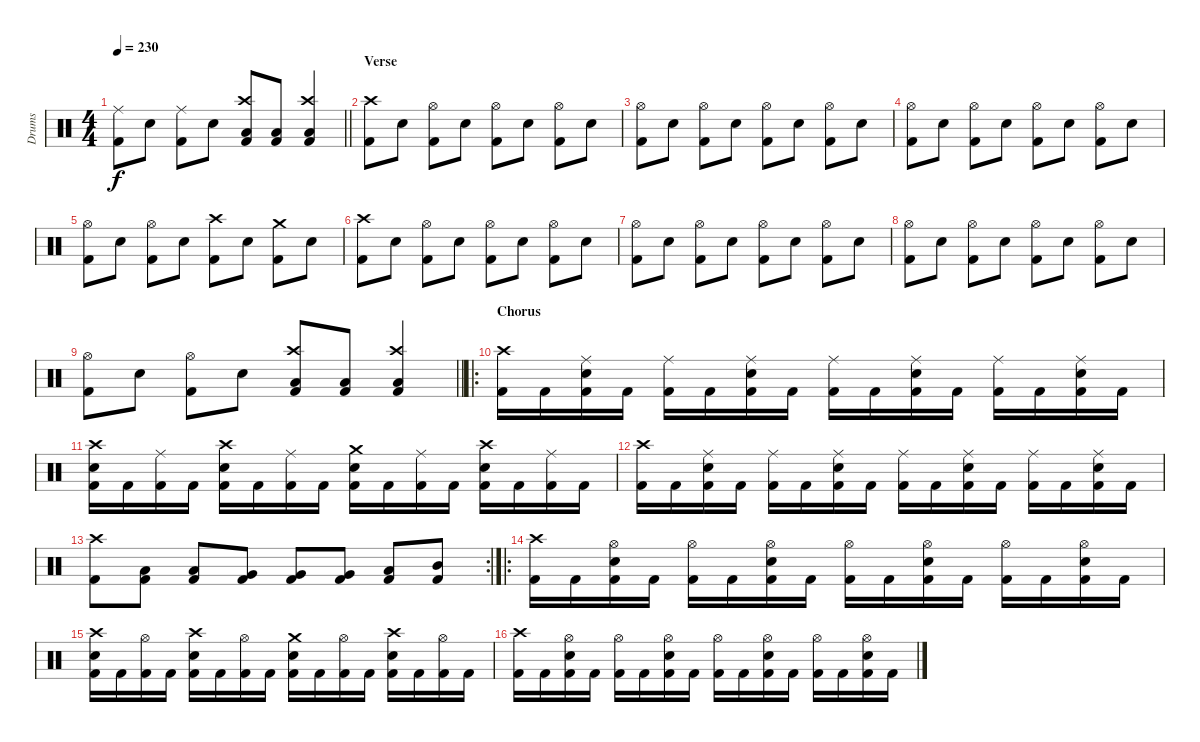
\track ("Drums" "Drums") {instrument percussion}
\staff {score}
\articulation defaults
\ts (4 4)
\tempo 230
\clef neutral
\barLineRight lightlight
\ks c
("Ride (middle)" "Kick (hit) 2").8{dy f} "Electric Snare (hit)".8 ("Ride (middle)" "Kick (hit) 2").8 "Electric Snare (hit)".8 ("Crash high (hit)" "Low Tom (hit)" "Kick (hit) 2").8 ("Low Tom (hit)" "Kick (hit) 2").8 ("Crash high (hit)" "Low Tom (hit)" "Kick (hit) 2").4 |
\section ("" "Verse")
("Crash high (hit)" "Kick (hit) 2").8 "Electric Snare (hit)".8 ("Hi-Hat (open)" "Kick (hit) 2").8 "Electric Snare (hit)".8 ("Hi-Hat (open)" "Kick (hit) 2").8 "Electric Snare (hit)".8 ("Hi-Hat (open)" "Kick (hit) 2").8 "Electric Snare (hit)".8 |
("Hi-Hat (open)" "Kick (hit) 2").8 "Electric Snare (hit)".8 ("Hi-Hat (open)" "Kick (hit) 2").8 "Electric Snare (hit)".8 ("Hi-Hat (open)" "Kick (hit) 2").8 "Electric Snare (hit)".8 ("Hi-Hat (open)" "Kick (hit) 2").8 "Electric Snare (hit)".8 |
("Hi-Hat (open)" "Kick (hit) 2").8 "Electric Snare (hit)".8 ("Hi-Hat (open)" "Kick (hit) 2").8 "Electric Snare (hit)".8 ("Hi-Hat (open)" "Kick (hit) 2").8 "Electric Snare (hit)".8 ("Hi-Hat (open)" "Kick (hit) 2").8 "Electric Snare (hit)".8 |
("Hi-Hat (open)" "Kick (hit) 2").8 "Electric Snare (hit)".8 ("Hi-Hat (open)" "Kick (hit) 2").8 "Electric Snare (hit)".8 ("Crash high (hit)" "Kick (hit) 2").8 "Electric Snare (hit)".8 ("Crash medium (hit)" "Kick (hit) 2").8 "Electric Snare (hit)".8 |
("Crash high (hit)" "Kick (hit) 2").8 "Electric Snare (hit)".8 ("Hi-Hat (open)" "Kick (hit) 2").8 "Electric Snare (hit)".8 ("Hi-Hat (open)" "Kick (hit) 2").8 "Electric Snare (hit)".8 ("Hi-Hat (open)" "Kick (hit) 2").8 "Electric Snare (hit)".8 |
("Hi-Hat (open)" "Kick (hit) 2").8 "Electric Snare (hit)".8 ("Hi-Hat (open)" "Kick (hit) 2").8 "Electric Snare (hit)".8 ("Hi-Hat (open)" "Kick (hit) 2").8 "Electric Snare (hit)".8 ("Hi-Hat (open)" "Kick (hit) 2").8 "Electric Snare (hit)".8 |
("Hi-Hat (open)" "Kick (hit) 2").8 "Electric Snare (hit)".8 ("Hi-Hat (open)" "Kick (hit) 2").8 "Electric Snare (hit)".8 ("Hi-Hat (open)" "Kick (hit) 2").8 "Electric Snare (hit)".8 ("Hi-Hat (open)" "Kick (hit) 2").8 "Electric Snare (hit)".8 |
\barLineRight lightlight
("Hi-Hat (open)" "Kick (hit) 2").8 "Electric Snare (hit)".8 ("Hi-Hat (open)" "Kick (hit) 2").8 "Electric Snare (hit)".8 ("Crash high (hit)" "Low Tom (hit)" "Kick (hit) 2").8 ("Low Tom (hit)" "Kick (hit) 2").8 ("Crash high (hit)" "Low Tom (hit)" "Kick (hit) 2").4 |
\ro
\section ("" "Chorus")
("Crash high (hit)" "Kick (hit) 2").16 "Kick (hit) 2".16 ("Ride (middle)" "Electric Snare (hit)" "Kick (hit) 2").16 "Kick (hit) 2".16 ("Ride (middle)" "Kick (hit) 2").16 "Kick (hit) 2".16 ("Ride (middle)" "Electric Snare (hit)" "Kick (hit) 2").16 "Kick (hit) 2".16 ("Ride (middle)" "Kick (hit) 2").16 "Kick (hit) 2".16 ("Ride (middle)" "Electric Snare (hit)" "Kick (hit) 2").16 "Kick (hit) 2".16 ("Ride (middle)" "Kick (hit) 2").16 "Kick (hit) 2".16 ("Ride (middle)" "Electric Snare (hit)" "Kick (hit) 2").16 "Kick (hit) 2".16 |
("Crash high (hit)" "Electric Snare (hit)" "Kick (hit) 2").16 "Kick (hit) 2".16 ("Ride (middle)" "Kick (hit) 2").16 "Kick (hit) 2".16 ("Crash high (hit)" "Electric Snare (hit)" "Kick (hit) 2").16 "Kick (hit) 2".16 ("Ride (middle)" "Kick (hit) 2").16 "Kick (hit) 2".16 ("Crash medium (hit)" "Electric Snare (hit)" "Kick (hit) 2").16 "Kick (hit) 2".16 ("Ride (middle)" "Kick (hit) 2").16 "Kick (hit) 2".16 ("Crash high (hit)" "Electric Snare (hit)" "Kick (hit) 2").16 "Kick (hit) 2".16 ("Ride (middle)" "Kick (hit) 2").16 "Kick (hit) 2".16 |
("Crash high (hit)" "Kick (hit) 2").16 "Kick (hit) 2".16 ("Ride (middle)" "Electric Snare (hit)" "Kick (hit) 2").16 "Kick (hit) 2".16 ("Ride (middle)" "Kick (hit) 2").16 "Kick (hit) 2".16 ("Ride (middle)" "Electric Snare (hit)" "Kick (hit) 2").16 "Kick (hit) 2".16 ("Ride (middle)" "Kick (hit) 2").16 "Kick (hit) 2".16 ("Ride (middle)" "Electric Snare (hit)" "Kick (hit) 2").16 "Kick (hit) 2".16 ("Ride (middle)" "Kick (hit) 2").16 "Kick (hit) 2".16 ("Ride (middle)" "Electric Snare (hit)" "Kick (hit) 2").16 "Kick (hit) 2".16 |
\rc 2
("Crash high (hit)" "Kick (hit) 2").8 ("Low Tom (hit)" "Kick (hit) 2").8 ("Low Tom (hit)" "Kick (hit) 2").8 ("Very Low Tom (hit)" "Kick (hit) 2").8 ("Very Low Tom (hit)" "Kick (hit) 2").8 ("Very Low Tom (hit)" "Kick (hit) 2").8 ("Low Tom (hit)" "Kick (hit) 2").8 ("Mid Tom (hit)" "Kick (hit) 2").8 |
\ro
("Crash high (hit)" "Kick (hit) 2").16 "Kick (hit) 2".16 ("Electric Snare (hit)" "Hi-Hat (open)" "Kick (hit) 2").16 "Kick (hit) 2".16 ("Hi-Hat (open)" "Kick (hit) 2").16 "Kick (hit) 2".16 ("Electric Snare (hit)" "Hi-Hat (open)" "Kick (hit) 2").16 "Kick (hit) 2".16 ("Hi-Hat (open)" "Kick (hit) 2").16 "Kick (hit) 2".16 ("Electric Snare (hit)" "Hi-Hat (open)" "Kick (hit) 2").16 "Kick (hit) 2".16 ("Hi-Hat (open)" "Kick (hit) 2").16 "Kick (hit) 2".16 ("Electric Snare (hit)" "Hi-Hat (open)" "Kick (hit) 2").16 "Kick (hit) 2".16 |
("Crash high (hit)" "Electric Snare (hit)" "Kick (hit) 2").16 "Kick (hit) 2".16 ("Hi-Hat (open)" "Kick (hit) 2").16 "Kick (hit) 2".16 ("Crash high (hit)" "Electric Snare (hit)" "Kick (hit) 2").16 "Kick (hit) 2".16 ("Hi-Hat (open)" "Kick (hit) 2").16 "Kick (hit) 2".16 ("Crash medium (hit)" "Electric Snare (hit)" "Kick (hit) 2").16 "Kick (hit) 2".16 ("Hi-Hat (open)" "Kick (hit) 2").16 "Kick (hit) 2".16 ("Crash high (hit)" "Electric Snare (hit)" "Kick (hit) 2").16 "Kick (hit) 2".16 ("Hi-Hat (open)" "Kick (hit) 2").16 "Kick (hit) 2".16 |
("Crash high (hit)" "Kick (hit) 2").16 "Kick (hit) 2".16 ("Electric Snare (hit)" "Hi-Hat (open)" "Kick (hit) 2").16 "Kick (hit) 2".16 ("Hi-Hat (open)" "Kick (hit) 2").16 "Kick (hit) 2".16 ("Electric Snare (hit)" "Hi-Hat (open)" "Kick (hit) 2").16 "Kick (hit) 2".16 ("Hi-Hat (open)" "Kick (hit) 2").16 "Kick (hit) 2".16 ("Electric Snare (hit)" "Hi-Hat (open)" "Kick (hit) 2").16 "Kick (hit) 2".16 ("Hi-Hat (open)" "Kick (hit) 2").16 "Kick (hit) 2".16 ("Electric Snare (hit)" "Hi-Hat (open)" "Kick (hit) 2").16 "Kick (hit) 2".16
